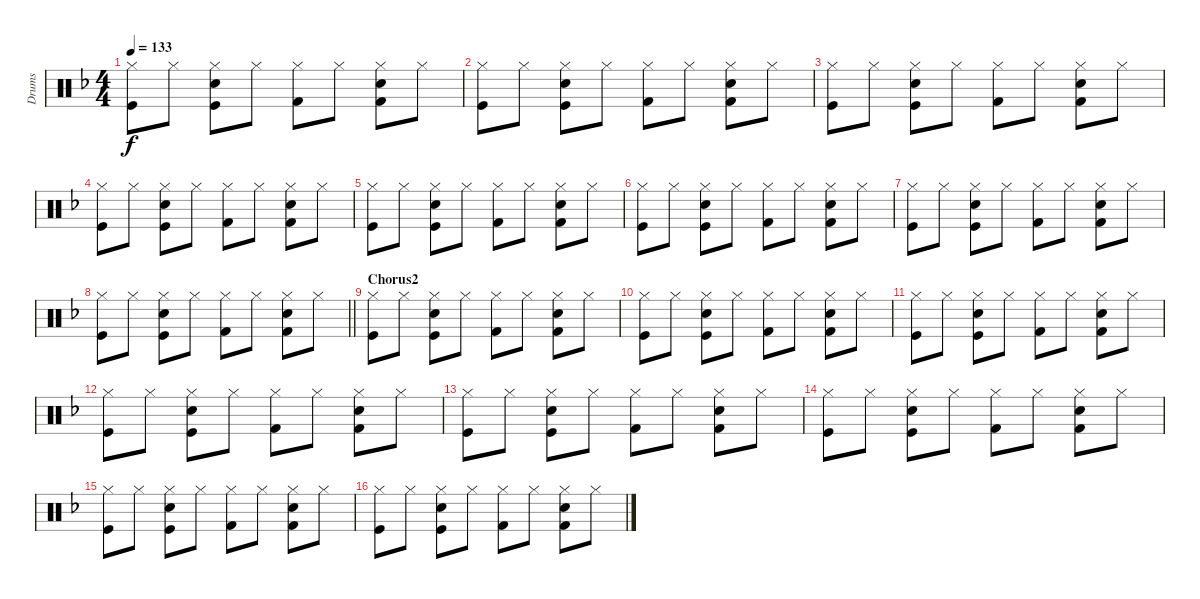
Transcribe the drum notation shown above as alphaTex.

\track ("Drums" "Drums") {instrument percussion}
\staff {score}
\articulation defaults
\ts (4 4)
\tempo 133
\clef neutral
\ks f
("Hi-Hat (closed)" "Kick (hit)").8{dy f} "Hi-Hat (closed)".8 ("Hi-Hat (closed)" "Kick (hit)" "Electric Snare (hit)").8 "Hi-Hat (closed)".8 ("Hi-Hat (closed)" "Kick (hit) 2").8 "Hi-Hat (closed)".8 ("Kick (hit) 2" "Hi-Hat (closed)" "Electric Snare (hit)").8 "Hi-Hat (closed)".8 |
("Hi-Hat (closed)" "Kick (hit)").8 "Hi-Hat (closed)".8 ("Hi-Hat (closed)" "Kick (hit)" "Electric Snare (hit)").8 "Hi-Hat (closed)".8 ("Hi-Hat (closed)" "Kick (hit) 2").8 "Hi-Hat (closed)".8 ("Kick (hit) 2" "Hi-Hat (closed)" "Electric Snare (hit)").8 "Hi-Hat (closed)".8 |
("Hi-Hat (closed)" "Kick (hit)").8 "Hi-Hat (closed)".8 ("Hi-Hat (closed)" "Kick (hit)" "Electric Snare (hit)").8 "Hi-Hat (closed)".8 ("Hi-Hat (closed)" "Kick (hit) 2").8 "Hi-Hat (closed)".8 ("Kick (hit) 2" "Hi-Hat (closed)" "Electric Snare (hit)").8 "Hi-Hat (closed)".8 |
("Hi-Hat (closed)" "Kick (hit)").8 "Hi-Hat (closed)".8 ("Hi-Hat (closed)" "Kick (hit)" "Electric Snare (hit)").8 "Hi-Hat (closed)".8 ("Hi-Hat (closed)" "Kick (hit) 2").8 "Hi-Hat (closed)".8 ("Kick (hit) 2" "Hi-Hat (closed)" "Electric Snare (hit)").8 "Hi-Hat (closed)".8 |
("Hi-Hat (closed)" "Kick (hit)").8 "Hi-Hat (closed)".8 ("Hi-Hat (closed)" "Kick (hit)" "Electric Snare (hit)").8 "Hi-Hat (closed)".8 ("Hi-Hat (closed)" "Kick (hit) 2").8 "Hi-Hat (closed)".8 ("Kick (hit) 2" "Hi-Hat (closed)" "Electric Snare (hit)").8 "Hi-Hat (closed)".8 |
("Hi-Hat (closed)" "Kick (hit)").8 "Hi-Hat (closed)".8 ("Hi-Hat (closed)" "Kick (hit)" "Electric Snare (hit)").8 "Hi-Hat (closed)".8 ("Hi-Hat (closed)" "Kick (hit) 2").8 "Hi-Hat (closed)".8 ("Kick (hit) 2" "Hi-Hat (closed)" "Electric Snare (hit)").8 "Hi-Hat (closed)".8 |
("Hi-Hat (closed)" "Kick (hit)").8 "Hi-Hat (closed)".8 ("Hi-Hat (closed)" "Kick (hit)" "Electric Snare (hit)").8 "Hi-Hat (closed)".8 ("Hi-Hat (closed)" "Kick (hit) 2").8 "Hi-Hat (closed)".8 ("Kick (hit) 2" "Hi-Hat (closed)" "Electric Snare (hit)").8 "Hi-Hat (closed)".8 |
\barLineRight lightlight
("Hi-Hat (closed)" "Kick (hit)").8 "Hi-Hat (closed)".8 ("Hi-Hat (closed)" "Kick (hit)" "Electric Snare (hit)").8 "Hi-Hat (closed)".8 ("Hi-Hat (closed)" "Kick (hit) 2").8 "Hi-Hat (closed)".8 ("Kick (hit) 2" "Hi-Hat (closed)" "Electric Snare (hit)").8 "Hi-Hat (closed)".8 |
\section ("" "Chorus2")
("Hi-Hat (closed)" "Kick (hit)").8 "Hi-Hat (closed)".8 ("Hi-Hat (closed)" "Kick (hit)" "Electric Snare (hit)").8 "Hi-Hat (closed)".8 ("Hi-Hat (closed)" "Kick (hit) 2").8 "Hi-Hat (closed)".8 ("Kick (hit) 2" "Hi-Hat (closed)" "Electric Snare (hit)").8 "Hi-Hat (closed)".8 |
("Hi-Hat (closed)" "Kick (hit)").8 "Hi-Hat (closed)".8 ("Hi-Hat (closed)" "Kick (hit)" "Electric Snare (hit)").8 "Hi-Hat (closed)".8 ("Hi-Hat (closed)" "Kick (hit) 2").8 "Hi-Hat (closed)".8 ("Kick (hit) 2" "Hi-Hat (closed)" "Electric Snare (hit)").8 "Hi-Hat (closed)".8 |
("Hi-Hat (closed)" "Kick (hit)").8 "Hi-Hat (closed)".8 ("Hi-Hat (closed)" "Kick (hit)" "Electric Snare (hit)").8 "Hi-Hat (closed)".8 ("Hi-Hat (closed)" "Kick (hit) 2").8 "Hi-Hat (closed)".8 ("Kick (hit) 2" "Hi-Hat (closed)" "Electric Snare (hit)").8 "Hi-Hat (closed)".8 |
("Hi-Hat (closed)" "Kick (hit)").8 "Hi-Hat (closed)".8 ("Hi-Hat (closed)" "Kick (hit)" "Electric Snare (hit)").8 "Hi-Hat (closed)".8 ("Hi-Hat (closed)" "Kick (hit) 2").8 "Hi-Hat (closed)".8 ("Kick (hit) 2" "Hi-Hat (closed)" "Electric Snare (hit)").8 "Hi-Hat (closed)".8 |
("Hi-Hat (closed)" "Kick (hit)").8 "Hi-Hat (closed)".8 ("Hi-Hat (closed)" "Kick (hit)" "Electric Snare (hit)").8 "Hi-Hat (closed)".8 ("Hi-Hat (closed)" "Kick (hit) 2").8 "Hi-Hat (closed)".8 ("Kick (hit) 2" "Hi-Hat (closed)" "Electric Snare (hit)").8 "Hi-Hat (closed)".8 |
("Hi-Hat (closed)" "Kick (hit)").8 "Hi-Hat (closed)".8 ("Hi-Hat (closed)" "Kick (hit)" "Electric Snare (hit)").8 "Hi-Hat (closed)".8 ("Hi-Hat (closed)" "Kick (hit) 2").8 "Hi-Hat (closed)".8 ("Kick (hit) 2" "Hi-Hat (closed)" "Electric Snare (hit)").8 "Hi-Hat (closed)".8 |
("Hi-Hat (closed)" "Kick (hit)").8 "Hi-Hat (closed)".8 ("Hi-Hat (closed)" "Kick (hit)" "Electric Snare (hit)").8 "Hi-Hat (closed)".8 ("Hi-Hat (closed)" "Kick (hit) 2").8 "Hi-Hat (closed)".8 ("Kick (hit) 2" "Hi-Hat (closed)" "Electric Snare (hit)").8 "Hi-Hat (closed)".8 |
("Hi-Hat (closed)" "Kick (hit)").8 "Hi-Hat (closed)".8 ("Hi-Hat (closed)" "Kick (hit)" "Electric Snare (hit)").8 "Hi-Hat (closed)".8 ("Hi-Hat (closed)" "Kick (hit) 2").8 "Hi-Hat (closed)".8 ("Kick (hit) 2" "Hi-Hat (closed)" "Electric Snare (hit)").8 "Hi-Hat (closed)".8
